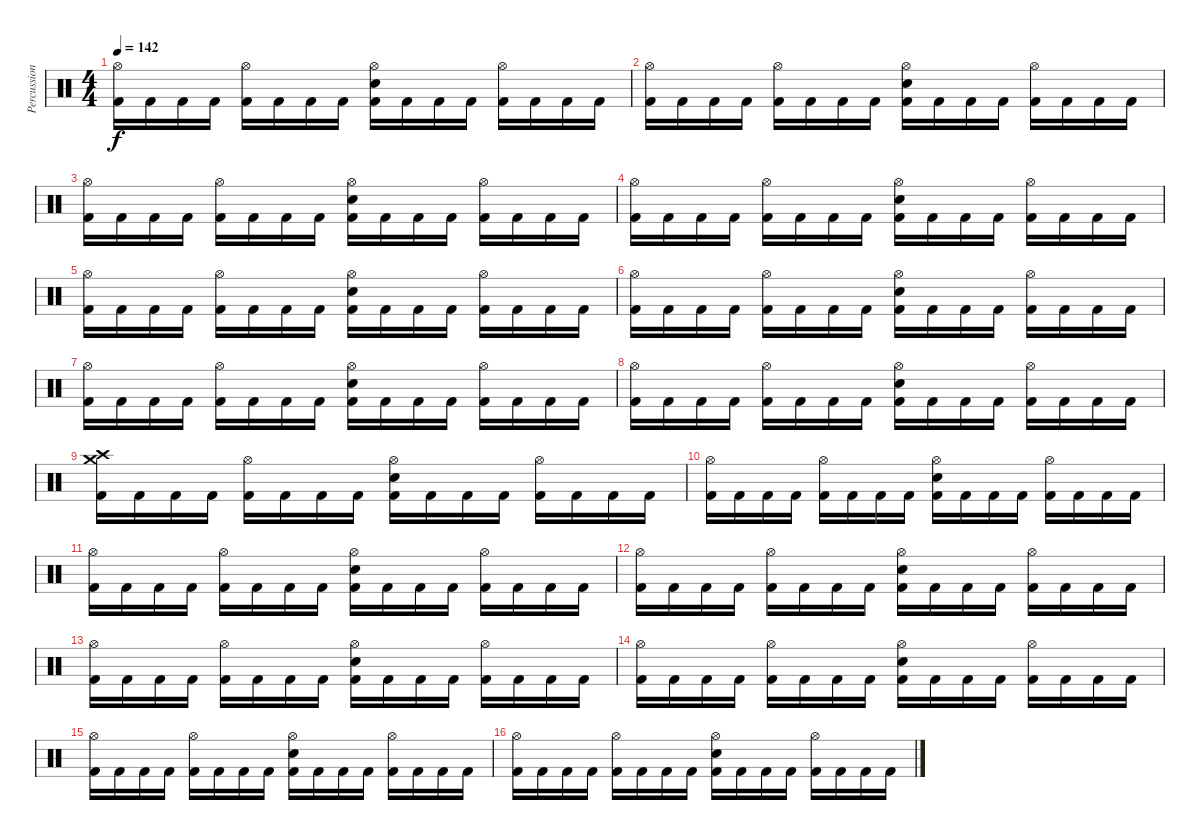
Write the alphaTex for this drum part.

\track ("Percussion" "Percussion") {instrument percussion}
\staff {score}
\articulation defaults
\ts (4 4)
\tempo 142
\clef neutral
\ks c
("Hi-Hat (open)" "Kick (hit) 2").16{dy f} "Kick (hit) 2".16 "Kick (hit) 2".16 "Kick (hit) 2".16 ("Hi-Hat (open)" "Kick (hit) 2").16 "Kick (hit) 2".16 "Kick (hit) 2".16 "Kick (hit) 2".16 ("Hi-Hat (open)" "Electric Snare (hit)" "Kick (hit) 2").16 "Kick (hit) 2".16 "Kick (hit) 2".16 "Kick (hit) 2".16 ("Hi-Hat (open)" "Kick (hit) 2").16 "Kick (hit) 2".16 "Kick (hit) 2".16 "Kick (hit) 2".16 |
("Hi-Hat (open)" "Kick (hit) 2").16 "Kick (hit) 2".16 "Kick (hit) 2".16 "Kick (hit) 2".16 ("Hi-Hat (open)" "Kick (hit) 2").16 "Kick (hit) 2".16 "Kick (hit) 2".16 "Kick (hit) 2".16 ("Hi-Hat (open)" "Electric Snare (hit)" "Kick (hit) 2").16 "Kick (hit) 2".16 "Kick (hit) 2".16 "Kick (hit) 2".16 ("Hi-Hat (open)" "Kick (hit) 2").16 "Kick (hit) 2".16 "Kick (hit) 2".16 "Kick (hit) 2".16 |
("Hi-Hat (open)" "Kick (hit) 2").16 "Kick (hit) 2".16 "Kick (hit) 2".16 "Kick (hit) 2".16 ("Hi-Hat (open)" "Kick (hit) 2").16 "Kick (hit) 2".16 "Kick (hit) 2".16 "Kick (hit) 2".16 ("Hi-Hat (open)" "Electric Snare (hit)" "Kick (hit) 2").16 "Kick (hit) 2".16 "Kick (hit) 2".16 "Kick (hit) 2".16 ("Hi-Hat (open)" "Kick (hit) 2").16 "Kick (hit) 2".16 "Kick (hit) 2".16 "Kick (hit) 2".16 |
("Hi-Hat (open)" "Kick (hit) 2").16 "Kick (hit) 2".16 "Kick (hit) 2".16 "Kick (hit) 2".16 ("Hi-Hat (open)" "Kick (hit) 2").16 "Kick (hit) 2".16 "Kick (hit) 2".16 "Kick (hit) 2".16 ("Hi-Hat (open)" "Electric Snare (hit)" "Kick (hit) 2").16 "Kick (hit) 2".16 "Kick (hit) 2".16 "Kick (hit) 2".16 ("Hi-Hat (open)" "Kick (hit) 2").16 "Kick (hit) 2".16 "Kick (hit) 2".16 "Kick (hit) 2".16 |
("Hi-Hat (open)" "Kick (hit) 2").16 "Kick (hit) 2".16 "Kick (hit) 2".16 "Kick (hit) 2".16 ("Hi-Hat (open)" "Kick (hit) 2").16 "Kick (hit) 2".16 "Kick (hit) 2".16 "Kick (hit) 2".16 ("Hi-Hat (open)" "Electric Snare (hit)" "Kick (hit) 2").16 "Kick (hit) 2".16 "Kick (hit) 2".16 "Kick (hit) 2".16 ("Hi-Hat (open)" "Kick (hit) 2").16 "Kick (hit) 2".16 "Kick (hit) 2".16 "Kick (hit) 2".16 |
("Hi-Hat (open)" "Kick (hit) 2").16 "Kick (hit) 2".16 "Kick (hit) 2".16 "Kick (hit) 2".16 ("Hi-Hat (open)" "Kick (hit) 2").16 "Kick (hit) 2".16 "Kick (hit) 2".16 "Kick (hit) 2".16 ("Hi-Hat (open)" "Electric Snare (hit)" "Kick (hit) 2").16 "Kick (hit) 2".16 "Kick (hit) 2".16 "Kick (hit) 2".16 ("Hi-Hat (open)" "Kick (hit) 2").16 "Kick (hit) 2".16 "Kick (hit) 2".16 "Kick (hit) 2".16 |
("Hi-Hat (open)" "Kick (hit) 2").16 "Kick (hit) 2".16 "Kick (hit) 2".16 "Kick (hit) 2".16 ("Hi-Hat (open)" "Kick (hit) 2").16 "Kick (hit) 2".16 "Kick (hit) 2".16 "Kick (hit) 2".16 ("Hi-Hat (open)" "Electric Snare (hit)" "Kick (hit) 2").16 "Kick (hit) 2".16 "Kick (hit) 2".16 "Kick (hit) 2".16 ("Hi-Hat (open)" "Kick (hit) 2").16 "Kick (hit) 2".16 "Kick (hit) 2".16 "Kick (hit) 2".16 |
("Hi-Hat (open)" "Kick (hit) 2").16 "Kick (hit) 2".16 "Kick (hit) 2".16 "Kick (hit) 2".16 ("Hi-Hat (open)" "Kick (hit) 2").16 "Kick (hit) 2".16 "Kick (hit) 2".16 "Kick (hit) 2".16 ("Hi-Hat (open)" "Electric Snare (hit)" "Kick (hit) 2").16 "Kick (hit) 2".16 "Kick (hit) 2".16 "Kick (hit) 2".16 ("Hi-Hat (open)" "Kick (hit) 2").16 "Kick (hit) 2".16 "Kick (hit) 2".16 "Kick (hit) 2".16 |
("Crash medium (hit)" "Crash high (hit)" "Kick (hit) 2").16 "Kick (hit) 2".16 "Kick (hit) 2".16 "Kick (hit) 2".16 ("Hi-Hat (open)" "Kick (hit) 2").16 "Kick (hit) 2".16 "Kick (hit) 2".16 "Kick (hit) 2".16 ("Hi-Hat (open)" "Electric Snare (hit)" "Kick (hit) 2").16 "Kick (hit) 2".16 "Kick (hit) 2".16 "Kick (hit) 2".16 ("Hi-Hat (open)" "Kick (hit) 2").16 "Kick (hit) 2".16 "Kick (hit) 2".16 "Kick (hit) 2".16 |
("Hi-Hat (open)" "Kick (hit) 2").16 "Kick (hit) 2".16 "Kick (hit) 2".16 "Kick (hit) 2".16 ("Hi-Hat (open)" "Kick (hit) 2").16 "Kick (hit) 2".16 "Kick (hit) 2".16 "Kick (hit) 2".16 ("Hi-Hat (open)" "Electric Snare (hit)" "Kick (hit) 2").16 "Kick (hit) 2".16 "Kick (hit) 2".16 "Kick (hit) 2".16 ("Hi-Hat (open)" "Kick (hit) 2").16 "Kick (hit) 2".16 "Kick (hit) 2".16 "Kick (hit) 2".16 |
("Hi-Hat (open)" "Kick (hit) 2").16 "Kick (hit) 2".16 "Kick (hit) 2".16 "Kick (hit) 2".16 ("Hi-Hat (open)" "Kick (hit) 2").16 "Kick (hit) 2".16 "Kick (hit) 2".16 "Kick (hit) 2".16 ("Hi-Hat (open)" "Electric Snare (hit)" "Kick (hit) 2").16 "Kick (hit) 2".16 "Kick (hit) 2".16 "Kick (hit) 2".16 ("Hi-Hat (open)" "Kick (hit) 2").16 "Kick (hit) 2".16 "Kick (hit) 2".16 "Kick (hit) 2".16 |
("Hi-Hat (open)" "Kick (hit) 2").16 "Kick (hit) 2".16 "Kick (hit) 2".16 "Kick (hit) 2".16 ("Hi-Hat (open)" "Kick (hit) 2").16 "Kick (hit) 2".16 "Kick (hit) 2".16 "Kick (hit) 2".16 ("Hi-Hat (open)" "Electric Snare (hit)" "Kick (hit) 2").16 "Kick (hit) 2".16 "Kick (hit) 2".16 "Kick (hit) 2".16 ("Hi-Hat (open)" "Kick (hit) 2").16 "Kick (hit) 2".16 "Kick (hit) 2".16 "Kick (hit) 2".16 |
("Hi-Hat (open)" "Kick (hit) 2").16 "Kick (hit) 2".16 "Kick (hit) 2".16 "Kick (hit) 2".16 ("Hi-Hat (open)" "Kick (hit) 2").16 "Kick (hit) 2".16 "Kick (hit) 2".16 "Kick (hit) 2".16 ("Hi-Hat (open)" "Electric Snare (hit)" "Kick (hit) 2").16 "Kick (hit) 2".16 "Kick (hit) 2".16 "Kick (hit) 2".16 ("Hi-Hat (open)" "Kick (hit) 2").16 "Kick (hit) 2".16 "Kick (hit) 2".16 "Kick (hit) 2".16 |
("Hi-Hat (open)" "Kick (hit) 2").16 "Kick (hit) 2".16 "Kick (hit) 2".16 "Kick (hit) 2".16 ("Hi-Hat (open)" "Kick (hit) 2").16 "Kick (hit) 2".16 "Kick (hit) 2".16 "Kick (hit) 2".16 ("Hi-Hat (open)" "Electric Snare (hit)" "Kick (hit) 2").16 "Kick (hit) 2".16 "Kick (hit) 2".16 "Kick (hit) 2".16 ("Hi-Hat (open)" "Kick (hit) 2").16 "Kick (hit) 2".16 "Kick (hit) 2".16 "Kick (hit) 2".16 |
("Hi-Hat (open)" "Kick (hit) 2").16 "Kick (hit) 2".16 "Kick (hit) 2".16 "Kick (hit) 2".16 ("Hi-Hat (open)" "Kick (hit) 2").16 "Kick (hit) 2".16 "Kick (hit) 2".16 "Kick (hit) 2".16 ("Hi-Hat (open)" "Electric Snare (hit)" "Kick (hit) 2").16 "Kick (hit) 2".16 "Kick (hit) 2".16 "Kick (hit) 2".16 ("Hi-Hat (open)" "Kick (hit) 2").16 "Kick (hit) 2".16 "Kick (hit) 2".16 "Kick (hit) 2".16 |
("Hi-Hat (open)" "Kick (hit) 2").16 "Kick (hit) 2".16 "Kick (hit) 2".16 "Kick (hit) 2".16 ("Hi-Hat (open)" "Kick (hit) 2").16 "Kick (hit) 2".16 "Kick (hit) 2".16 "Kick (hit) 2".16 ("Hi-Hat (open)" "Electric Snare (hit)" "Kick (hit) 2").16 "Kick (hit) 2".16 "Kick (hit) 2".16 "Kick (hit) 2".16 ("Hi-Hat (open)" "Kick (hit) 2").16 "Kick (hit) 2".16 "Kick (hit) 2".16 "Kick (hit) 2".16
